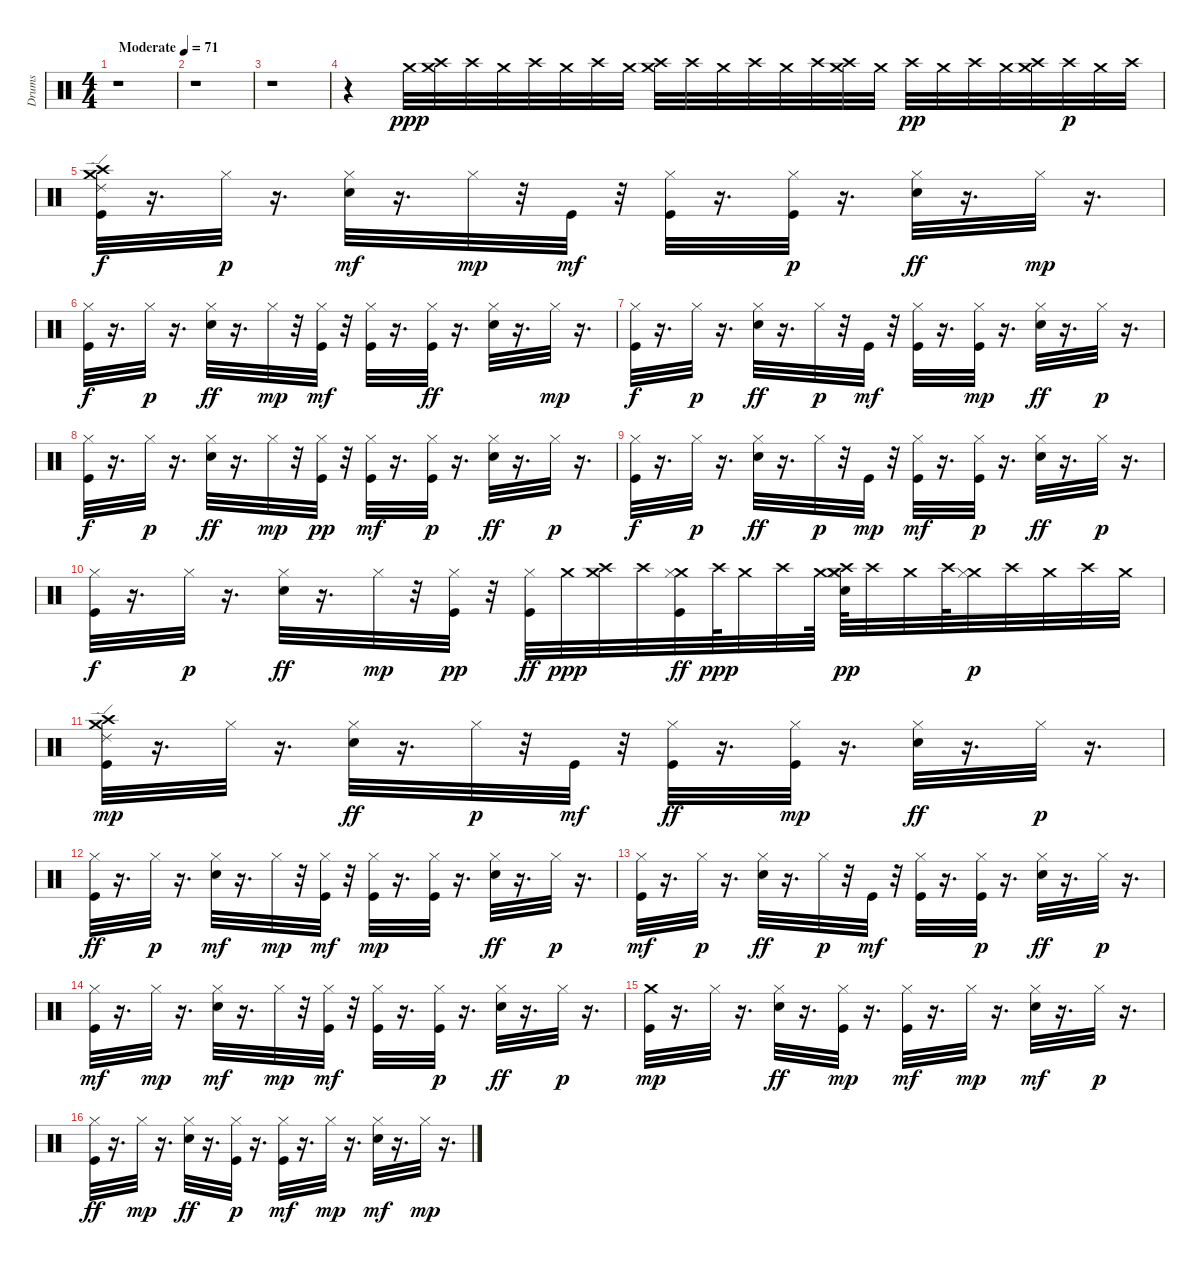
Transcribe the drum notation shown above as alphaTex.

\track ("Drums" "Drums") {instrument percussion}
\staff {score}
\articulation defaults
\ts (4 4)
\tempo (71 "Moderate")
\clef neutral
\ks c
r.1{dy ppp} |
r.1 |
r.1 |
r.4 "Crash medium (hit)".32 ("Crash high (hit)" "Crash medium (hit)").32 "Crash high (hit)".32 "Crash medium (hit)".32 "Crash high (hit)".32 "Crash medium (hit)".32 "Crash high (hit)".32 "Crash medium (hit)".32 ("Crash high (hit)" "Crash medium (hit)").32 "Crash high (hit)".32 "Crash medium (hit)".32 "Crash high (hit)".32 "Crash medium (hit)".32 "Crash high (hit)".32 ("Crash medium (hit)" "Crash high (hit)").32 "Crash medium (hit)".32 "Crash high (hit)".32{dy pp} "Crash medium (hit)".32 "Crash high (hit)".32 "Crash medium (hit)".32 ("Crash high (hit)" "Crash medium (hit)").32 "Crash high (hit)".32{dy p} "Crash medium (hit)".32 "Crash high (hit)".32 |
("Crash high (hit)" "Kick (hit)" "Ride (edge) 2" "Crash medium (hit)").32{dy f} r.16{d} "Hi-Hat (closed)".32{dy p} r.16{d} ("Snare (hit) 2" "Hi-Hat (closed)").32{dy mf} r.16{d} "Hi-Hat (closed)".32{dy mp} r.32 "Kick (hit)".32{dy mf} r.32 ("Hi-Hat (closed)" "Kick (hit)").32 r.16{d} ("Kick (hit)" "Hi-Hat (closed)").32{dy p} r.16{d} ("Hi-Hat (closed)" "Snare (hit) 2").32{dy ff} r.16{d} "Hi-Hat (closed)".32{dy mp} r.16{d} |
("Kick (hit)" "Hi-Hat (closed)").32{dy f} r.16{d} "Hi-Hat (closed)".32{dy p} r.16{d} ("Hi-Hat (closed)" "Snare (hit) 2").32{dy ff} r.16{d} "Hi-Hat (closed)".32{dy mp} r.32 ("Hi-Hat (closed)" "Kick (hit)").32{dy mf} r.32 ("Kick (hit)" "Hi-Hat (closed)").32 r.16{d} ("Hi-Hat (closed)" "Kick (hit)").32{dy ff} r.16{d} ("Hi-Hat (closed)" "Snare (hit) 2").32 r.16{d} "Hi-Hat (closed)".32{dy mp} r.16{d} |
("Hi-Hat (closed)" "Kick (hit)").32{dy f} r.16{d} "Hi-Hat (closed)".32{dy p} r.16{d} ("Hi-Hat (closed)" "Snare (hit) 2").32{dy ff} r.16{d} "Hi-Hat (closed)".32{dy p} r.32 "Kick (hit)".32{dy mf} r.32 ("Kick (hit)" "Hi-Hat (closed)").32 r.16{d} ("Kick (hit)" "Hi-Hat (closed)").32{dy mp} r.16{d} ("Hi-Hat (closed)" "Snare (hit) 2").32{dy ff} r.16{d} "Hi-Hat (closed)".32{dy p} r.16{d} |
("Hi-Hat (closed)" "Kick (hit)").32{dy f} r.16{d} "Hi-Hat (closed)".32{dy p} r.16{d} ("Hi-Hat (closed)" "Snare (hit) 2").32{dy ff} r.16{d} "Hi-Hat (closed)".32{dy mp} r.32 ("Kick (hit)" "Hi-Hat (closed)").32{dy pp} r.32 ("Kick (hit)" "Hi-Hat (closed)").32{dy mf} r.16{d} ("Kick (hit)" "Hi-Hat (closed)").32{dy p} r.16{d} ("Hi-Hat (closed)" "Snare (hit) 2").32{dy ff} r.16{d} "Hi-Hat (closed)".32{dy p} r.16{d} |
("Hi-Hat (closed)" "Kick (hit)").32{dy f} r.16{d} "Hi-Hat (closed)".32{dy p} r.16{d} ("Hi-Hat (closed)" "Snare (hit) 2").32{dy ff} r.16{d} "Hi-Hat (closed)".32{dy p} r.32 "Kick (hit)".32{dy mp} r.32 ("Kick (hit)" "Hi-Hat (closed)").32{dy mf} r.16{d} ("Kick (hit)" "Hi-Hat (closed)").32{dy p} r.16{d} ("Hi-Hat (closed)" "Snare (hit) 2").32{dy ff} r.16{d} "Hi-Hat (closed)".32{dy p} r.16{d} |
("Hi-Hat (closed)" "Kick (hit)").32{dy f} r.16{d} "Hi-Hat (closed)".32{dy p} r.16{d} ("Hi-Hat (closed)" "Snare (hit) 2").32{dy ff} r.16{d} "Hi-Hat (closed)".32{dy mp} r.32 ("Kick (hit)" "Hi-Hat (closed)").32{dy pp} r.32 ("Hi-Hat (closed)" "Kick (hit)").32{dy ff} "Crash medium (hit)".32{dy ppp} ("Crash high (hit)" "Crash medium (hit)").32 "Crash high (hit)".32 ("Crash medium (hit)" "Hi-Hat (closed)" "Kick (hit)").32{dy ff} "Crash high (hit)".64{dy ppp} "Crash medium (hit)".32 "Crash high (hit)".32 "Crash medium (hit)".64 ("Crash high (hit)" "Hi-Hat (closed)" "Snare (hit) 2" "Crash medium (hit)").64{dy pp} "Crash high (hit)".32 "Crash medium (hit)".32 "Crash high (hit)".64 ("Crash medium (hit)" "Hi-Hat (closed)").32{dy p} "Crash high (hit)".32 "Crash medium (hit)".32 "Crash high (hit)".32 "Crash medium (hit)".32 |
("Kick (hit)" "Ride (edge) 2" "Crash medium (hit)" "Crash high (hit)").32{dy mp} r.16{d} "Hi-Hat (closed)".32 r.16{d} ("Hi-Hat (closed)" "Snare (hit) 2").32{dy ff} r.16{d} "Hi-Hat (closed)".32{dy p} r.32 "Kick (hit)".32{dy mf} r.32 ("Hi-Hat (closed)" "Kick (hit)").32{dy ff} r.16{d} ("Kick (hit)" "Hi-Hat (closed)").32{dy mp} r.16{d} ("Hi-Hat (closed)" "Snare (hit) 2").32{dy ff} r.16{d} "Hi-Hat (closed)".32{dy p} r.16{d} |
("Hi-Hat (closed)" "Kick (hit)").32{dy ff} r.16{d} "Hi-Hat (closed)".32{dy p} r.16{d} ("Snare (hit) 2" "Hi-Hat (closed)").32{dy mf} r.16{d} "Hi-Hat (closed)".32{dy mp} r.32 ("Hi-Hat (closed)" "Kick (hit)").32{dy mf} r.32 ("Kick (hit)" "Hi-Hat (closed)").32{dy mp} r.16{d} ("Kick (hit)" "Hi-Hat (closed)").32 r.16{d} ("Hi-Hat (closed)" "Snare (hit) 2").32{dy ff} r.16{d} "Hi-Hat (closed)".32{dy p} r.16{d} |
("Kick (hit)" "Hi-Hat (closed)").32{dy mf} r.16{d} "Hi-Hat (closed)".32{dy p} r.16{d} ("Hi-Hat (closed)" "Snare (hit) 2").32{dy ff} r.16{d} "Hi-Hat (closed)".32{dy p} r.32 "Kick (hit)".32{dy mf} r.32 ("Kick (hit)" "Hi-Hat (closed)").32 r.16{d} ("Kick (hit)" "Hi-Hat (closed)").32{dy p} r.16{d} ("Hi-Hat (closed)" "Snare (hit) 2").32{dy ff} r.16{d} "Hi-Hat (closed)".32{dy p} r.16{d} |
("Kick (hit)" "Hi-Hat (closed)").32{dy mf} r.16{d} "Hi-Hat (closed)".32{dy mp} r.16{d} ("Snare (hit) 2" "Hi-Hat (closed)").32{dy mf} r.16{d} "Hi-Hat (closed)".32{dy mp} r.32 ("Hi-Hat (closed)" "Kick (hit)").32{dy mf} r.32 ("Kick (hit)" "Hi-Hat (closed)").32 r.16{d} ("Kick (hit)" "Hi-Hat (closed)").32{dy p} r.16{d} ("Hi-Hat (closed)" "Snare (hit) 2").32{dy ff} r.16{d} "Hi-Hat (closed)".32{dy p} r.16{d} |
("Kick (hit)" "Crash medium (hit)").32{dy mp} r.16{d} "Hi-Hat (closed)".32 r.16{d} ("Hi-Hat (closed)" "Snare (hit) 2").32{dy ff} r.16{d} ("Kick (hit)" "Hi-Hat (closed)").32{dy mp} r.16{d} ("Kick (hit)" "Hi-Hat (closed)").32{dy mf} r.16{d} "Hi-Hat (closed)".32{dy mp} r.16{d} ("Snare (hit) 2" "Hi-Hat (closed)").32{dy mf} r.16{d} "Hi-Hat (closed)".32{dy p} r.16{d} |
("Hi-Hat (closed)" "Kick (hit)").32{dy ff} r.16{d} "Hi-Hat (closed)".32{dy mp} r.16{d} ("Hi-Hat (closed)" "Snare (hit) 2").32{dy ff} r.16{d} ("Kick (hit)" "Hi-Hat (closed)").32{dy p} r.16{d} ("Kick (hit)" "Hi-Hat (closed)").32{dy mf} r.16{d} "Hi-Hat (closed)".32{dy mp} r.16{d} ("Snare (hit) 2" "Hi-Hat (closed)").32{dy mf} r.16{d} "Hi-Hat (closed)".32{dy mp} r.16{d}
